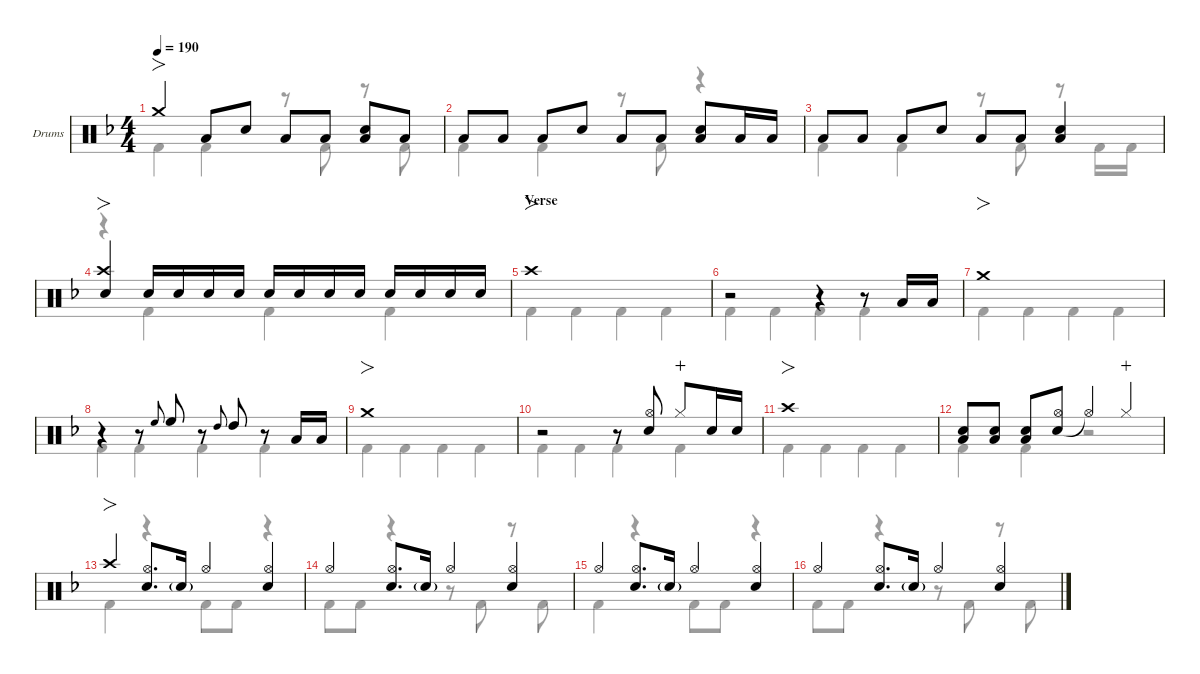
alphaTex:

\defaultSystemsLayout 4
\hideDynamics
\bracketExtendMode nobrackets
\firstSystemTrackNameOrientation horizontal
\track ("Drums" "Drums") {defaultSystemsLayout 4 instrument percussion}
\staff {score}
\articulation defaults
\voice
\ts (4 4)
\tempo 190
\clef neutral
\scale
0.266618
\ks dminor "Crash medium (hit)"{acc forcenatural}.4{fo dy f} "Low Tom (hit)"{acc forcenatural}.8 "Snare (hit) 2"{acc forcenatural}.8 "Low Tom (hit)"{acc forcenatural}.8 "Low Tom (hit)"{acc forcenatural}.8
("Low Tom (hit)"{acc forcenatural} "Snare (hit) 2"{acc forcenatural}).8 "Low Tom (hit)"{acc forcenatural}.8 |
\scale
0.244461 "Low Tom (hit)"{acc forcenatural}.8 "Low Tom (hit)"{acc forcenatural}.8 "Low Tom (hit)"{acc forcenatural}.8 "Snare (hit) 2"{acc forcenatural}.8 "Low Tom (hit)"{acc forcenatural}.8 "Low Tom (hit)"{acc forcenatural}.8{beam split} ("Low Tom (hit)"{acc forcenatural} "Snare (hit) 2"{acc forcenatural}).8 "Low Tom (hit)"{acc forcenatural}.16 "Low Tom (hit)"{acc forcenatural}.16 |
\scale
0.24446 "Low Tom (hit)"{acc forcenatural}.8 "Low Tom (hit)"{acc forcenatural}.8 "Low Tom (hit)"{acc forcenatural}.8 "Snare (hit) 2"{acc forcenatural}.8 "Low Tom (hit)"{acc forcenatural}.8 "Low Tom (hit)"{acc forcenatural}.8 ("Snare (hit) 2"{acc forcenatural} "Low Tom (hit)"{acc forcenatural}).4 |
\scale
0.244461 ("Snare (hit) 2"{acc forcenatural} "Crash high (hit)"{acc forcenatural}).4{fo} "Snare (hit) 2"{acc forcenatural}.16 "Snare (hit) 2"{acc forcenatural}.16{dy mp} "Snare (hit) 2"{acc forcenatural}.16{dy mf} "Snare (hit) 2"{acc forcenatural}.16{dy mp} "Snare (hit) 2"{acc forcenatural}.16{dy f} "Snare (hit) 2"{acc forcenatural}.16{dy mp} "Snare (hit) 2"{acc forcenatural}.16{dy mf} "Snare (hit) 2"{acc forcenatural}.16{dy mp beam split} "Snare (hit) 2"{acc forcenatural}.16{dy f} "Snare (hit) 2"{acc forcenatural}.16{dy mp} "Snare (hit) 2"{acc forcenatural}.16{dy mf} "Snare (hit) 2"{acc forcenatural}.16{dy mp} |
\section ("" "Verse")
\scale
0.266618 "Crash high (hit)"{acc forcenatural}.1{fo dy f} |
\scale
0.244461 r.2 r.4 r.8 "Low Tom (hit)"{acc forcenatural}.16 "Low Tom (hit)"{acc forcenatural}.16 |
\scale
0.244461 "Crash medium (hit)"{acc forcenatural}.1{fo} |
\scale
0.244461 r.4 r.8 "High Floor Tom (hit)"{acc forcenatural}.8{gr onbeat} "High Floor Tom (hit)"{acc forcenatural}.8 r.8 "High Tom (hit)"{acc forcenatural}.8{gr onbeat} "High Tom (hit)"{acc forcenatural}.8{beam split} r.8{beam split} "Low Tom (hit)"{acc forcenatural}.16 "Low Tom (hit)"{acc forcenatural}.16 |
\scale
0.266618 "Crash medium (hit)"{acc forcenatural}.1{fo} |
\scale
0.244461 r.2 r.8 ("Snare (hit) 2"{acc forcenatural} "Hi-Hat (open)"{acc forcenatural}).8{beam split} "Hi-Hat (closed)"{acc forcenatural}.8{dy mp wahc} "Snare (hit) 2"{acc forcenatural}.16{dy f} "Snare (hit) 2"{acc forcenatural}.16{dy mf} |
\scale
0.244461 "Crash high (hit)"{acc forcenatural}.1{fo dy f} |
\scale
0.244461 ("Snare (hit) 2"{acc forcenatural} "Low Tom (hit)"{acc forcenatural}).8 ("Snare (hit) 2"{acc forcenatural} "Low Tom (hit)"{acc forcenatural}).8 ("Low Tom (hit)"{acc forcenatural} "Snare (hit) 2"{acc forcenatural}).8 ("Snare (hit) 2"{acc forcenatural} "Hi-Hat (open)"{acc forcenatural}).8 "Hi-Hat (open)"{t acc forcenatural}.4 "Hi-Hat (closed)"{acc forcenatural}.4{dy mp wahc} |
\scale
0.266618 "Crash high (hit)"{acc forcenatural}.4{fo dy f} ("Hi-Hat (open)"{acc forcenatural} "Snare (hit) 2"{acc forcenatural}).8{d} "Snare (hit) 2"{g acc forcenatural}.16{dy mf} "Hi-Hat (open)"{acc forcenatural}.4{dy f} ("Hi-Hat (open)"{acc forcenatural} "Snare (hit) 2"{acc forcenatural}).4 |
\scale
0.244461 "Hi-Hat (open)"{acc forcenatural}.4 ("Hi-Hat (open)"{acc forcenatural} "Snare (hit) 2"{acc forcenatural}).8{d} "Snare (hit) 2"{g acc forcenatural}.16{dy mf} "Hi-Hat (open)"{acc forcenatural}.4{dy f} ("Hi-Hat (open)"{acc forcenatural} "Snare (hit) 2"{acc forcenatural}).4 |
\scale
0.24446 "Hi-Hat (open)"{acc forcenatural}.4 ("Hi-Hat (open)"{acc forcenatural} "Snare (hit) 2"{acc forcenatural}).8{d} "Snare (hit) 2"{g acc forcenatural}.16{dy mf} "Hi-Hat (open)"{acc forcenatural}.4{dy f} ("Hi-Hat (open)"{acc forcenatural} "Snare (hit) 2"{acc forcenatural}).4 |
\scale
0.244461 "Hi-Hat (open)"{acc forcenatural}.4 ("Hi-Hat (open)"{acc forcenatural} "Snare (hit) 2"{acc forcenatural}).8{d} "Snare (hit) 2"{g acc forcenatural}.16{dy mf} "Hi-Hat (open)"{acc forcenatural}.4{dy f} ("Hi-Hat (open)"{acc forcenatural} "Snare (hit) 2"{acc forcenatural}).4
\voice
\clef neutral
\ottava regular
\simile none
\scale
0.266618
\ks dminor "Kick (hit) 2"{acc forcenatural}.4{dy f} "Kick (hit) 2"{acc forcenatural}.4
r.8 "Kick (hit) 2"{acc forcenatural}.8 r.8 "Kick (hit) 2"{acc forcenatural}.8 |
\scale
0.244461 "Kick (hit) 2"{acc forcenatural}.4 "Kick (hit) 2"{acc forcenatural}.4 r.8 "Kick (hit) 2"{acc forcenatural}.8 r.4 |
\scale
0.24446 "Kick (hit) 2"{acc forcenatural}.4 "Kick (hit) 2"{acc forcenatural}.4 r.8 "Kick (hit) 2"{acc forcenatural}.8{beam split} r.8{beam split} "Kick (hit) 2"{acc forcenatural}.16 "Kick (hit) 2"{acc forcenatural}.16 |
\scale
0.244461 r.4 "Kick (hit) 2"{acc forcenatural}.4 "Kick (hit) 2"{acc forcenatural}.4 "Kick (hit) 2"{acc forcenatural}.4 |
\scale
0.266618 "Kick (hit) 2"{acc forcenatural}.4 "Kick (hit) 2"{acc forcenatural}.4 "Kick (hit) 2"{acc forcenatural}.4 "Kick (hit) 2"{acc forcenatural}.4 |
\scale
0.244461 "Kick (hit) 2"{acc forcenatural}.4 "Kick (hit) 2"{acc forcenatural}.4 "Kick (hit) 2"{acc forcenatural}.4 "Kick (hit) 2"{acc forcenatural}.4 |
\scale
0.244461 "Kick (hit) 2"{acc forcenatural}.4 "Kick (hit) 2"{acc forcenatural}.4 "Kick (hit) 2"{acc forcenatural}.4 "Kick (hit) 2"{acc forcenatural}.4 |
\scale
0.244461 "Kick (hit) 2"{acc forcenatural}.4 "Kick (hit) 2"{acc forcenatural}.4 "Kick (hit) 2"{acc forcenatural}.4 "Kick (hit) 2"{acc forcenatural}.4 |
\scale
0.266618 "Kick (hit) 2"{acc forcenatural}.4 "Kick (hit) 2"{acc forcenatural}.4 "Kick (hit) 2"{acc forcenatural}.4 "Kick (hit) 2"{acc forcenatural}.4 |
\scale
0.244461 "Kick (hit) 2"{acc forcenatural}.4 "Kick (hit) 2"{acc forcenatural}.4 "Kick (hit) 2"{acc forcenatural}.4 "Kick (hit) 2"{acc forcenatural}.4 |
\scale
0.244461 "Kick (hit) 2"{acc forcenatural}.4 "Kick (hit) 2"{acc forcenatural}.4 "Kick (hit) 2"{acc forcenatural}.4 "Kick (hit) 2"{acc forcenatural}.4 |
\scale
0.244461 "Kick (hit) 2"{acc forcenatural}.4 "Kick (hit) 2"{acc forcenatural}.4 r.2 |
\scale
0.266618 "Kick (hit) 2"{acc forcenatural}.4 r.4 "Kick (hit) 2"{acc forcenatural}.8 "Kick (hit) 2"{acc forcenatural}.8 r.4 |
\scale
0.244461 "Kick (hit) 2"{acc forcenatural}.8 "Kick (hit) 2"{acc forcenatural}.8 r.4 r.8 "Kick (hit) 2"{acc forcenatural}.8 r.8 "Kick (hit) 2"{acc forcenatural}.8 |
\scale
0.24446 "Kick (hit) 2"{acc forcenatural}.4 r.4 "Kick (hit) 2"{acc forcenatural}.8 "Kick (hit) 2"{acc forcenatural}.8 r.4 |
\scale
0.244461 "Kick (hit) 2"{acc forcenatural}.8 "Kick (hit) 2"{acc forcenatural}.8 r.4 r.8 "Kick (hit) 2"{acc forcenatural}.8 r.8 "Kick (hit) 2"{acc forcenatural}.8
